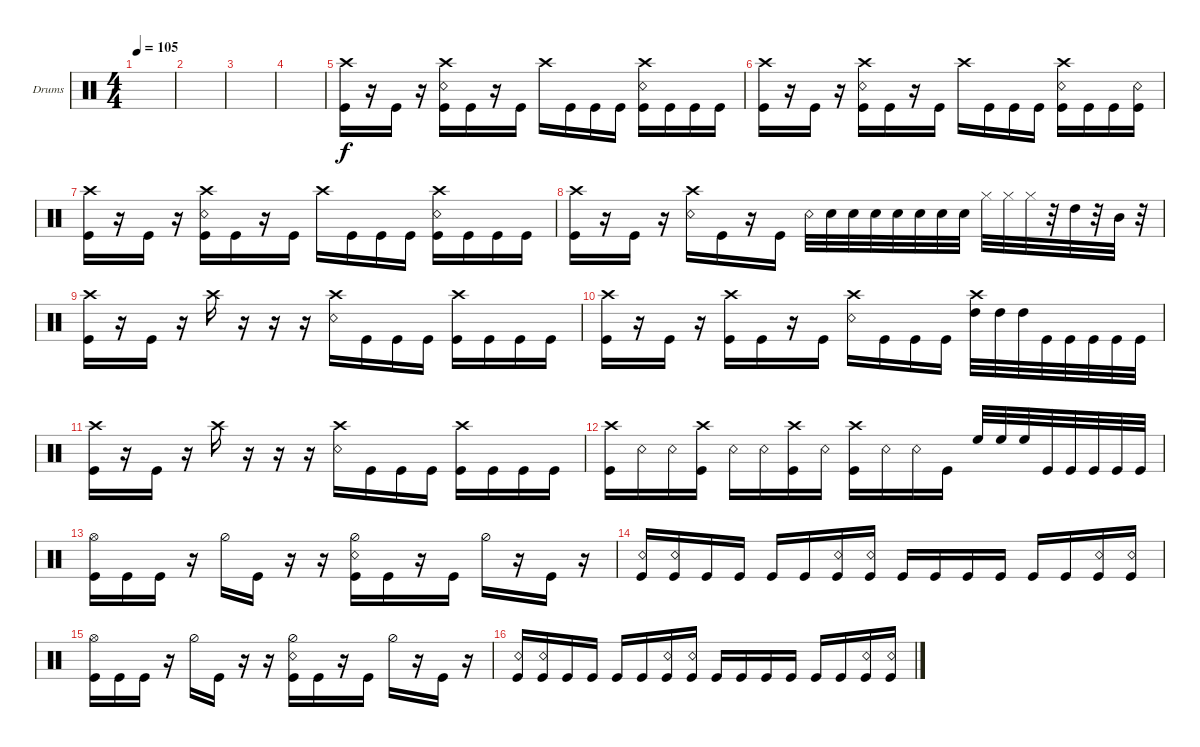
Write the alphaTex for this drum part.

\defaultSystemsLayout 4
\bracketExtendMode groupsimilarinstruments
\firstSystemTrackNameOrientation horizontal
\otherSystemsTrackNameOrientation horizontal
\track ("Drums" "Drums") {instrument percussion}
\staff {score}
\articulation defaults
\ts (4 4)
\tempo 105
\clef neutral
\ks c
|
|
|
|
("Crash high (hit)" "Kick (hit)").16 r.16 "Kick (hit)".16 r.16 ("Crash high (hit)" "Snare (rim shot)" "Kick (hit)").16 "Kick (hit)".16 r.16 "Kick (hit)".16 "Crash high (hit)".16 "Kick (hit)".16 "Kick (hit)".16 "Kick (hit)".16 ("Crash high (hit)" "Kick (hit)" "Snare (rim shot)").16 "Kick (hit)".16 "Kick (hit)".16 "Kick (hit)".16 |
("Crash high (hit)" "Kick (hit)").16 r.16 "Kick (hit)".16 r.16 ("Crash high (hit)" "Snare (rim shot)" "Kick (hit)").16 "Kick (hit)".16 r.16 "Kick (hit)".16 "Crash high (hit)".16 "Kick (hit)".16 "Kick (hit)".16 "Kick (hit)".16 ("Crash high (hit)" "Kick (hit)" "Snare (rim shot)").16 "Kick (hit)".16 "Kick (hit)".16 ("Kick (hit)" "Snare (rim shot)").16 |
("Crash high (hit)" "Kick (hit)").16 r.16 "Kick (hit)".16 r.16 ("Crash high (hit)" "Snare (rim shot)" "Kick (hit)").16 "Kick (hit)".16 r.16 "Kick (hit)".16 "Crash high (hit)".16 "Kick (hit)".16 "Kick (hit)".16 "Kick (hit)".16 ("Crash high (hit)" "Kick (hit)" "Snare (rim shot)").16 "Kick (hit)".16 "Kick (hit)".16 "Kick (hit)".16 |
("Kick (hit)" "Crash high (hit)").16 r.16 "Kick (hit)".16 r.16 ("Snare (rim shot)" "Crash high (hit)").16 "Kick (hit)".16 r.16 "Kick (hit)".16 "Snare (rim shot)".32 "Snare (hit) 2".32 "Snare (hit) 2".32 "Snare (hit) 2".32 "Snare (hit) 2".32 "Snare (hit) 2".32 "Snare (hit) 2".32 "Snare (hit) 2".32 "Hi-Hat (closed)".32 "Hi-Hat (closed)".32 "Hi-Hat (closed)".32 r.32 "High Tom (hit)".32 r.32 "Mid Tom (hit)".32 r.32 |
("Kick (hit)" "Crash high (hit)").16 r.16 "Kick (hit)".16 r.16 "Crash high (hit)".16 r.16 r.16 r.16 ("Crash high (hit)" "Snare (rim shot)").16 "Kick (hit)".16 "Kick (hit)".16 "Kick (hit)".16 ("Kick (hit)" "Crash high (hit)").16 "Kick (hit)".16 "Kick (hit)".16 "Kick (hit)".16 |
("Kick (hit)" "Crash high (hit)").16 r.16 "Kick (hit)".16 r.16 ("Kick (hit)" "Crash high (hit)").16 "Kick (hit)".16 r.16 "Kick (hit)".16 ("Crash high (hit)" "Snare (rim shot)").16 "Kick (hit)".16 "Kick (hit)".16 "Kick (hit)".16 ("Crash high (hit)" "High Tom (hit)").32 "High Tom (hit)".32 "High Tom (hit)".32 "Kick (hit)".32 "Kick (hit)".32 "Kick (hit)".32 "Kick (hit)".32 "Kick (hit)".32 |
("Kick (hit)" "Crash high (hit)").16 r.16 "Kick (hit)".16 r.16 "Crash high (hit)".16 r.16 r.16 r.16 ("Crash high (hit)" "Snare (rim shot)").16 "Kick (hit)".16 "Kick (hit)".16 "Kick (hit)".16 ("Kick (hit)" "Crash high (hit)").16 "Kick (hit)".16 "Kick (hit)".16 "Kick (hit)".16 |
("Crash high (hit)" "Kick (hit)").16 "Snare (rim shot)".16 "Snare (rim shot)".16 ("Crash high (hit)" "Kick (hit)").16 "Snare (rim shot)".16 "Snare (rim shot)".16 ("Crash high (hit)" "Kick (hit)").16 "Snare (rim shot)".16 ("Crash high (hit)" "Kick (hit)").16 "Snare (rim shot)".16 "Snare (rim shot)".16 "Kick (hit)".16 "High Floor Tom (hit)".32 "High Floor Tom (hit)".32 "High Floor Tom (hit)".32 "Kick (hit)".32 "Kick (hit)".32 "Kick (hit)".32 "Kick (hit)".32 "Kick (hit)".32 |
("Kick (hit)" "Hi-Hat (open)").16 "Kick (hit)".16 "Kick (hit)".16 r.16 "Hi-Hat (half)".16 "Kick (hit)".16 r.16 r.16 ("Kick (hit)" "Hi-Hat (half)" "Snare (rim shot)").16 "Kick (hit)".16 r.16 "Kick (hit)".16 "Hi-Hat (half)".16 r.16 "Kick (hit)".16 r.16 |
("Kick (hit)" "Snare (rim shot)").16 ("Kick (hit)" "Snare (rim shot)").16 "Kick (hit)".16 "Kick (hit)".16 "Kick (hit)".16 "Kick (hit)".16 ("Kick (hit)" "Snare (rim shot)").16 ("Kick (hit)" "Snare (rim shot)").16 "Kick (hit)".16 "Kick (hit)".16 "Kick (hit)".16 "Kick (hit)".16 "Kick (hit)".16 "Kick (hit)".16 ("Kick (hit)" "Snare (rim shot)").16 ("Kick (hit)" "Snare (rim shot)").16 |
("Kick (hit)" "Hi-Hat (open)").16 "Kick (hit)".16 "Kick (hit)".16 r.16 "Hi-Hat (half)".16 "Kick (hit)".16 r.16 r.16 ("Kick (hit)" "Hi-Hat (half)" "Snare (rim shot)").16 "Kick (hit)".16 r.16 "Kick (hit)".16 "Hi-Hat (half)".16 r.16 "Kick (hit)".16 r.16 |
("Kick (hit)" "Snare (rim shot)").16 ("Kick (hit)" "Snare (rim shot)").16 "Kick (hit)".16 "Kick (hit)".16 "Kick (hit)".16 "Kick (hit)".16 ("Kick (hit)" "Snare (rim shot)").16 ("Kick (hit)" "Snare (rim shot)").16 "Kick (hit)".16 "Kick (hit)".16 "Kick (hit)".16 "Kick (hit)".16 "Kick (hit)".16 "Kick (hit)".16 ("Kick (hit)" "Snare (rim shot)").16 ("Kick (hit)" "Snare (rim shot)").16
